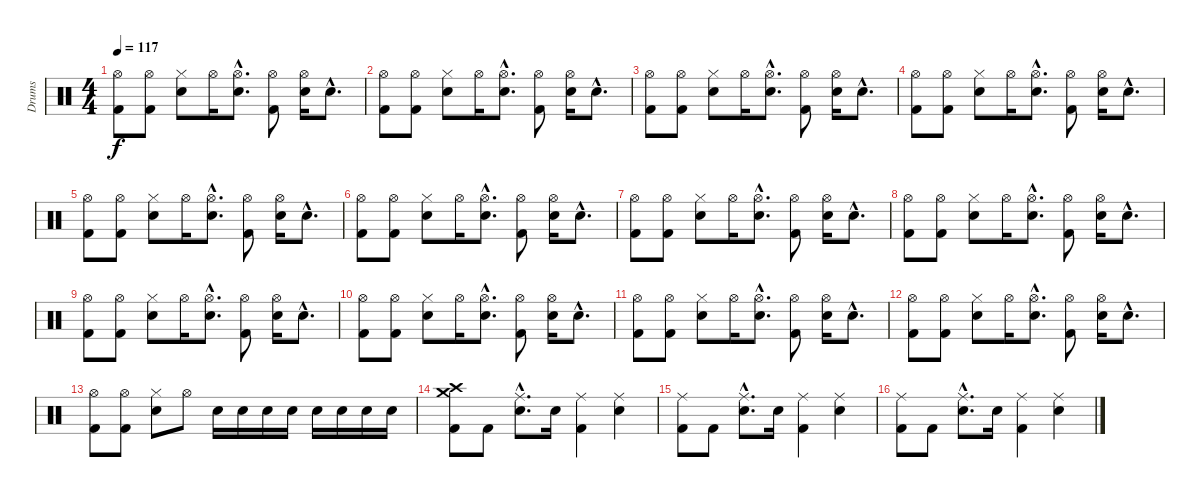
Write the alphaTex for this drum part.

\track ("Drums" "Drums") {instrument percussion}
\staff {score}
\articulation defaults
\ts (4 4)
\tempo 117
\clef neutral
\ks c
("Hi-Hat (open)" "Kick (hit) 2").8{dy f} ("Hi-Hat (open)" "Kick (hit) 2").8 ("Hi-Hat (closed)" "Electric Snare (hit)").8 "Hi-Hat (open)".16 ("Hi-Hat (open)"{hac} "Electric Snare (hit)"{hac}).8{d} ("Hi-Hat (open)" "Kick (hit) 2").8 ("Hi-Hat (open)" "Electric Snare (hit)").16 "Electric Snare (hit)"{hac}.8{d} |
("Hi-Hat (open)" "Kick (hit) 2").8 ("Hi-Hat (open)" "Kick (hit) 2").8 ("Hi-Hat (closed)" "Electric Snare (hit)").8 "Hi-Hat (open)".16 ("Hi-Hat (open)"{hac} "Electric Snare (hit)"{hac}).8{d} ("Hi-Hat (open)" "Kick (hit) 2").8 ("Hi-Hat (open)" "Electric Snare (hit)").16 "Electric Snare (hit)"{hac}.8{d} |
("Hi-Hat (open)" "Kick (hit) 2").8 ("Hi-Hat (open)" "Kick (hit) 2").8 ("Hi-Hat (closed)" "Electric Snare (hit)").8 "Hi-Hat (open)".16 ("Hi-Hat (open)"{hac} "Electric Snare (hit)"{hac}).8{d} ("Hi-Hat (open)" "Kick (hit) 2").8 ("Hi-Hat (open)" "Electric Snare (hit)").16 "Electric Snare (hit)"{hac}.8{d} |
("Hi-Hat (open)" "Kick (hit) 2").8 ("Hi-Hat (open)" "Kick (hit) 2").8 ("Hi-Hat (closed)" "Electric Snare (hit)").8 "Hi-Hat (open)".16 ("Hi-Hat (open)"{hac} "Electric Snare (hit)"{hac}).8{d} ("Hi-Hat (open)" "Kick (hit) 2").8 ("Hi-Hat (open)" "Electric Snare (hit)").16 "Electric Snare (hit)"{hac}.8{d} |
("Hi-Hat (open)" "Kick (hit) 2").8 ("Hi-Hat (open)" "Kick (hit) 2").8 ("Hi-Hat (closed)" "Electric Snare (hit)").8 "Hi-Hat (open)".16 ("Hi-Hat (open)"{hac} "Electric Snare (hit)"{hac}).8{d} ("Hi-Hat (open)" "Kick (hit) 2").8 ("Hi-Hat (open)" "Electric Snare (hit)").16 "Electric Snare (hit)"{hac}.8{d} |
("Hi-Hat (open)" "Kick (hit) 2").8 ("Hi-Hat (open)" "Kick (hit) 2").8 ("Hi-Hat (closed)" "Electric Snare (hit)").8 "Hi-Hat (open)".16 ("Hi-Hat (open)"{hac} "Electric Snare (hit)"{hac}).8{d} ("Hi-Hat (open)" "Kick (hit) 2").8 ("Hi-Hat (open)" "Electric Snare (hit)").16 "Electric Snare (hit)"{hac}.8{d} |
("Hi-Hat (open)" "Kick (hit) 2").8 ("Hi-Hat (open)" "Kick (hit) 2").8 ("Hi-Hat (closed)" "Electric Snare (hit)").8 "Hi-Hat (open)".16 ("Hi-Hat (open)"{hac} "Electric Snare (hit)"{hac}).8{d} ("Hi-Hat (open)" "Kick (hit) 2").8 ("Hi-Hat (open)" "Electric Snare (hit)").16 "Electric Snare (hit)"{hac}.8{d} |
("Hi-Hat (open)" "Kick (hit) 2").8 ("Hi-Hat (open)" "Kick (hit) 2").8 ("Hi-Hat (closed)" "Electric Snare (hit)").8 "Hi-Hat (open)".16 ("Hi-Hat (open)"{hac} "Electric Snare (hit)"{hac}).8{d} ("Hi-Hat (open)" "Kick (hit) 2").8 ("Hi-Hat (open)" "Electric Snare (hit)").16 "Electric Snare (hit)"{hac}.8{d} |
("Hi-Hat (open)" "Kick (hit) 2").8 ("Hi-Hat (open)" "Kick (hit) 2").8 ("Hi-Hat (closed)" "Electric Snare (hit)").8 "Hi-Hat (open)".16 ("Hi-Hat (open)"{hac} "Electric Snare (hit)"{hac}).8{d} ("Hi-Hat (open)" "Kick (hit) 2").8 ("Hi-Hat (open)" "Electric Snare (hit)").16 "Electric Snare (hit)"{hac}.8{d} |
("Hi-Hat (open)" "Kick (hit) 2").8 ("Hi-Hat (open)" "Kick (hit) 2").8 ("Hi-Hat (closed)" "Electric Snare (hit)").8 "Hi-Hat (open)".16 ("Hi-Hat (open)"{hac} "Electric Snare (hit)"{hac}).8{d} ("Hi-Hat (open)" "Kick (hit) 2").8 ("Hi-Hat (open)" "Electric Snare (hit)").16 "Electric Snare (hit)"{hac}.8{d} |
("Hi-Hat (open)" "Kick (hit) 2").8 ("Hi-Hat (open)" "Kick (hit) 2").8 ("Hi-Hat (closed)" "Electric Snare (hit)").8 "Hi-Hat (open)".16 ("Hi-Hat (open)"{hac} "Electric Snare (hit)"{hac}).8{d} ("Hi-Hat (open)" "Kick (hit) 2").8 ("Hi-Hat (open)" "Electric Snare (hit)").16 "Electric Snare (hit)"{hac}.8{d} |
("Hi-Hat (open)" "Kick (hit) 2").8 ("Hi-Hat (open)" "Kick (hit) 2").8 ("Hi-Hat (closed)" "Electric Snare (hit)").8 "Hi-Hat (open)".16 ("Hi-Hat (open)"{hac} "Electric Snare (hit)"{hac}).8{d} ("Hi-Hat (open)" "Kick (hit) 2").8 ("Hi-Hat (open)" "Electric Snare (hit)").16 "Electric Snare (hit)"{hac}.8{d} |
("Hi-Hat (open)" "Kick (hit) 2").8 ("Hi-Hat (open)" "Kick (hit) 2").8 ("Hi-Hat (closed)" "Electric Snare (hit)").8 "Hi-Hat (open)".8 "Electric Snare (hit)".16 "Electric Snare (hit)".16 "Electric Snare (hit)".16 "Electric Snare (hit)".16 "Electric Snare (hit)".16 "Electric Snare (hit)".16 "Electric Snare (hit)".16 "Electric Snare (hit)".16 |
("Crash medium (hit)" "Crash high (hit)" "Kick (hit) 2").8 "Kick (hit) 2".8 ("Ride (middle)"{hac} "Electric Snare (hit)"{hac}).8{d} "Electric Snare (hit)".16 ("Ride (middle)" "Kick (hit) 2").4 ("Ride (middle)" "Electric Snare (hit)").4 |
("Ride (middle)" "Kick (hit) 2").8 "Kick (hit) 2".8 ("Ride (middle)"{hac} "Electric Snare (hit)"{hac}).8{d} "Electric Snare (hit)".16 ("Ride (middle)" "Kick (hit) 2").4 ("Ride (middle)" "Electric Snare (hit)").4 |
("Ride (middle)" "Kick (hit) 2").8 "Kick (hit) 2".8 ("Ride (middle)"{hac} "Electric Snare (hit)"{hac}).8{d} "Electric Snare (hit)".16 ("Ride (middle)" "Kick (hit) 2").4 ("Ride (middle)" "Electric Snare (hit)").4
